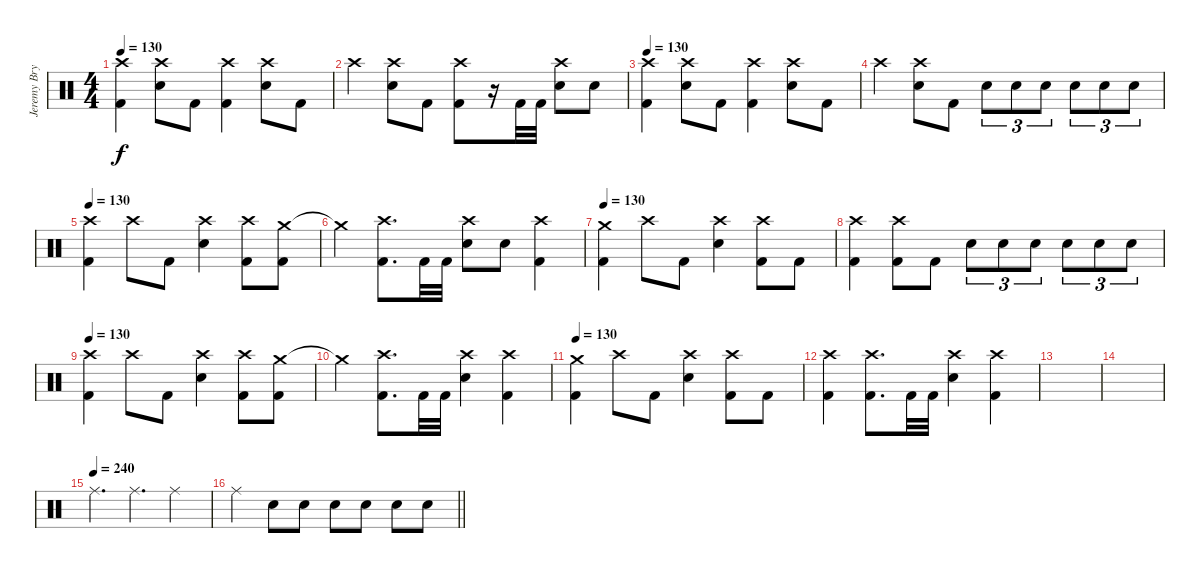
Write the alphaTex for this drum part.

\track ("Jeremy Bryan - Drums" "Jeremy Bry") {instrument percussion}
\staff {score}
\articulation defaults
\ts (4 4)
\tempo 130
\clef neutral
\ks c
("Crash high (hit)" "Kick (hit) 2").4{dy f} ("Crash high (hit)" "Electric Snare (hit)").8 "Kick (hit) 2".8 ("Crash high (hit)" "Kick (hit) 2").4 ("Crash high (hit)" "Electric Snare (hit)").8 "Kick (hit) 2".8 |
"Crash high (hit)".4 ("Crash high (hit)" "Electric Snare (hit)").8 "Kick (hit) 2".8 ("Crash high (hit)" "Kick (hit) 2").8 r.16 "Kick (hit) 2".32 "Kick (hit) 2".32 ("Crash high (hit)" "Electric Snare (hit)").8 "Electric Snare (hit)".8 |
\tempo 130
("Crash high (hit)" "Kick (hit) 2").4 ("Crash high (hit)" "Electric Snare (hit)").8 "Kick (hit) 2".8 ("Crash high (hit)" "Kick (hit) 2").4 ("Crash high (hit)" "Electric Snare (hit)").8 "Kick (hit) 2".8 |
"Crash high (hit)".4 ("Crash high (hit)" "Electric Snare (hit)").8 "Kick (hit) 2".8 "Electric Snare (hit)".8{tu (3 2)} "Electric Snare (hit)".8{tu (3 2)} "Electric Snare (hit)".8{tu (3 2)} "Electric Snare (hit)".8{tu (3 2)} "Electric Snare (hit)".8{tu (3 2)} "Electric Snare (hit)".8{tu (3 2)} |
\tempo 130
("Crash high (hit)" "Kick (hit) 2").4 "Crash high (hit)".8 "Kick (hit) 2".8 ("Crash high (hit)" "Electric Snare (hit)").4 ("Crash high (hit)" "Kick (hit) 2").8 ("Crash medium (hit)" "Kick (hit) 2").8 |
"Crash medium (hit)"{t}.4 ("Crash high (hit)" "Kick (hit) 2").8{d} "Kick (hit) 2".32 "Kick (hit) 2".32 ("Crash high (hit)" "Electric Snare (hit)").8 "Electric Snare (hit)".8 ("Crash high (hit)" "Kick (hit) 2").4 |
\tempo 130
("Crash medium (hit)" "Kick (hit) 2").4 "Crash high (hit)".8 "Kick (hit) 2".8 ("Crash high (hit)" "Electric Snare (hit)").4 ("Crash high (hit)" "Kick (hit) 2").8 "Kick (hit) 2".8 |
("Crash high (hit)" "Kick (hit) 2").4 ("Crash high (hit)" "Kick (hit) 2").8 "Kick (hit) 2".8 "Electric Snare (hit)".8{tu (3 2)} "Electric Snare (hit)".8{tu (3 2)} "Electric Snare (hit)".8{tu (3 2)} "Electric Snare (hit)".8{tu (3 2)} "Electric Snare (hit)".8{tu (3 2)} "Electric Snare (hit)".8{tu (3 2)} |
\tempo 130
("Crash high (hit)" "Kick (hit) 2").4 "Crash high (hit)".8 "Kick (hit) 2".8 ("Crash high (hit)" "Electric Snare (hit)").4 ("Crash high (hit)" "Kick (hit) 2").8 ("Crash medium (hit)" "Kick (hit) 2").8 |
"Crash medium (hit)"{t}.4 ("Crash high (hit)" "Kick (hit) 2").8{d} "Kick (hit) 2".32 "Kick (hit) 2".32 ("Crash high (hit)" "Electric Snare (hit)").4 ("Crash high (hit)" "Kick (hit) 2").4 |
\tempo 130
("Crash medium (hit)" "Kick (hit) 2").4 "Crash high (hit)".8 "Kick (hit) 2".8 ("Crash high (hit)" "Electric Snare (hit)").4 ("Crash high (hit)" "Kick (hit) 2").8 "Kick (hit) 2".8 |
("Crash high (hit)" "Kick (hit) 2").4 ("Crash high (hit)" "Kick (hit) 2").8{d} "Kick (hit) 2".32 "Kick (hit) 2".32 ("Crash high (hit)" "Electric Snare (hit)").4 ("Crash high (hit)" "Kick (hit) 2").4 |
|
|
\tempo (240)
"Ride (middle)".4{d} "Ride (middle)".4{d} "Ride (middle)".4 |
\barLineRight lightlight "Ride (middle)".4 "Electric Snare (hit)".8 "Electric Snare (hit)".8 "Electric Snare (hit)".8 "Electric Snare (hit)".8 "Electric Snare (hit)".8 "Electric Snare (hit)".8
